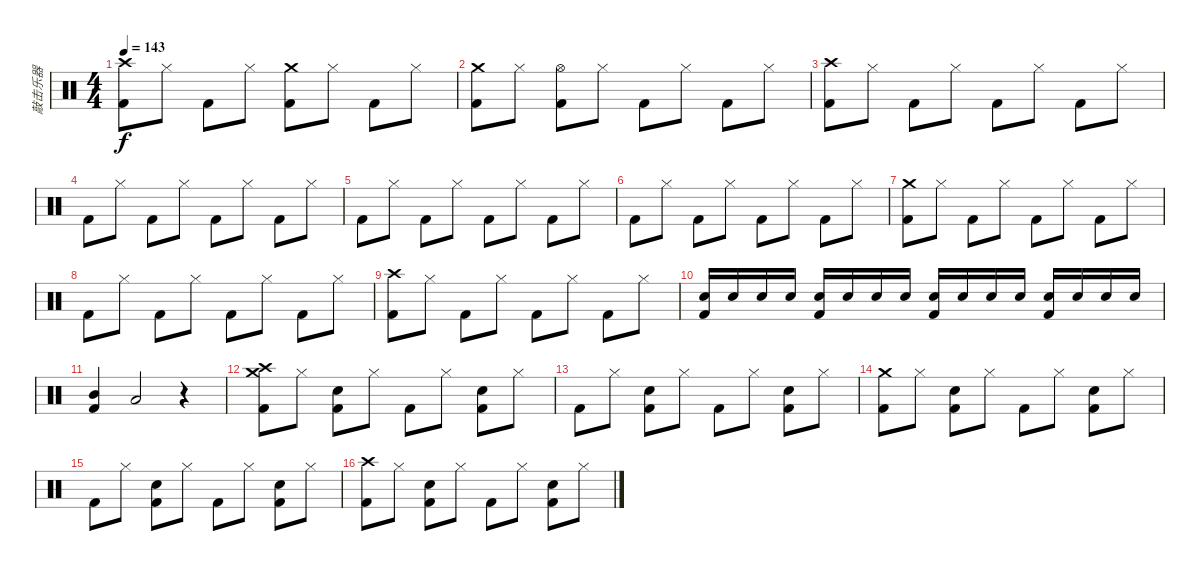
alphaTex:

\track ("敲击乐器" "敲击乐器") {instrument percussion}
\staff {score}
\articulation defaults
\ts (4 4)
\tempo 143
\clef neutral
\ks c
("Crash high (hit)" "Kick (hit) 2").8{dy f} "Hi-Hat (closed)".8 "Kick (hit) 2".8 "Hi-Hat (closed)".8 ("Crash medium (hit)" "Kick (hit) 2").8 "Hi-Hat (closed)".8 "Kick (hit) 2".8 "Hi-Hat (closed)".8 |
("Crash medium (hit)" "Kick (hit) 2").8 "Hi-Hat (closed)".8 ("Hi-Hat (open)" "Kick (hit) 2").8 "Hi-Hat (closed)".8 "Kick (hit) 2".8 "Hi-Hat (closed)".8 "Kick (hit) 2".8 "Hi-Hat (closed)".8 |
("Crash high (hit)" "Kick (hit) 2").8 "Hi-Hat (closed)".8 "Kick (hit) 2".8 "Hi-Hat (closed)".8 "Kick (hit) 2".8 "Hi-Hat (closed)".8 "Kick (hit) 2".8 "Hi-Hat (closed)".8 |
"Kick (hit) 2".8 "Hi-Hat (closed)".8 "Kick (hit) 2".8 "Hi-Hat (closed)".8 "Kick (hit) 2".8 "Hi-Hat (closed)".8 "Kick (hit) 2".8 "Hi-Hat (closed)".8 |
"Kick (hit) 2".8 "Hi-Hat (closed)".8 "Kick (hit) 2".8 "Hi-Hat (closed)".8 "Kick (hit) 2".8 "Hi-Hat (closed)".8 "Kick (hit) 2".8 "Hi-Hat (closed)".8 |
"Kick (hit) 2".8 "Hi-Hat (closed)".8 "Kick (hit) 2".8 "Hi-Hat (closed)".8 "Kick (hit) 2".8 "Hi-Hat (closed)".8 "Kick (hit) 2".8 "Hi-Hat (closed)".8 |
("Crash medium (hit)" "Kick (hit) 2").8 "Hi-Hat (closed)".8 "Kick (hit) 2".8 "Hi-Hat (closed)".8 "Kick (hit) 2".8 "Hi-Hat (closed)".8 "Kick (hit) 2".8 "Hi-Hat (closed)".8 |
"Kick (hit) 2".8 "Hi-Hat (closed)".8 "Kick (hit) 2".8 "Hi-Hat (closed)".8 "Kick (hit) 2".8 "Hi-Hat (closed)".8 "Kick (hit) 2".8 "Hi-Hat (closed)".8 |
("Crash high (hit)" "Kick (hit) 2").8 "Hi-Hat (closed)".8 "Kick (hit) 2".8 "Hi-Hat (closed)".8 "Kick (hit) 2".8 "Hi-Hat (closed)".8 "Kick (hit) 2".8 "Hi-Hat (closed)".8 |
("Electric Snare (hit)" "Kick (hit) 2").16 "Electric Snare (hit)".16 "Electric Snare (hit)".16 "Electric Snare (hit)".16 ("Electric Snare (hit)" "Kick (hit) 2").16 "Electric Snare (hit)".16 "Electric Snare (hit)".16 "Electric Snare (hit)".16 ("Electric Snare (hit)" "Kick (hit) 2").16 "Electric Snare (hit)".16 "Electric Snare (hit)".16 "Electric Snare (hit)".16 ("Electric Snare (hit)" "Kick (hit) 2").16 "Electric Snare (hit)".16 "Electric Snare (hit)".16 "Electric Snare (hit)".16 |
("Mid Tom (hit)" "Kick (hit) 2").4 "Low Floor Tom (hit)".2 r.4 |
("Crash high (hit)" "Crash medium (hit)" "Kick (hit) 2").8 "Hi-Hat (closed)".8 ("Electric Snare (hit)" "Kick (hit) 2").8 "Hi-Hat (closed)".8 "Kick (hit) 2".8 "Hi-Hat (closed)".8 ("Electric Snare (hit)" "Kick (hit) 2").8 "Hi-Hat (closed)".8 |
"Kick (hit) 2".8 "Hi-Hat (closed)".8 ("Electric Snare (hit)" "Kick (hit) 2").8 "Hi-Hat (closed)".8 "Kick (hit) 2".8 "Hi-Hat (closed)".8 ("Electric Snare (hit)" "Kick (hit) 2").8 "Hi-Hat (closed)".8 |
("Crash medium (hit)" "Kick (hit) 2").8 "Hi-Hat (closed)".8 ("Electric Snare (hit)" "Kick (hit) 2").8 "Hi-Hat (closed)".8 "Kick (hit) 2".8 "Hi-Hat (closed)".8 ("Electric Snare (hit)" "Kick (hit) 2").8 "Hi-Hat (closed)".8 |
"Kick (hit) 2".8 "Hi-Hat (closed)".8 ("Electric Snare (hit)" "Kick (hit) 2").8 "Hi-Hat (closed)".8 "Kick (hit) 2".8 "Hi-Hat (closed)".8 ("Electric Snare (hit)" "Kick (hit) 2").8 "Hi-Hat (closed)".8 |
("Crash high (hit)" "Kick (hit) 2").8 "Hi-Hat (closed)".8 ("Electric Snare (hit)" "Kick (hit) 2").8 "Hi-Hat (closed)".8 "Kick (hit) 2".8 "Hi-Hat (closed)".8 ("Electric Snare (hit)" "Kick (hit) 2").8 "Hi-Hat (closed)".8
